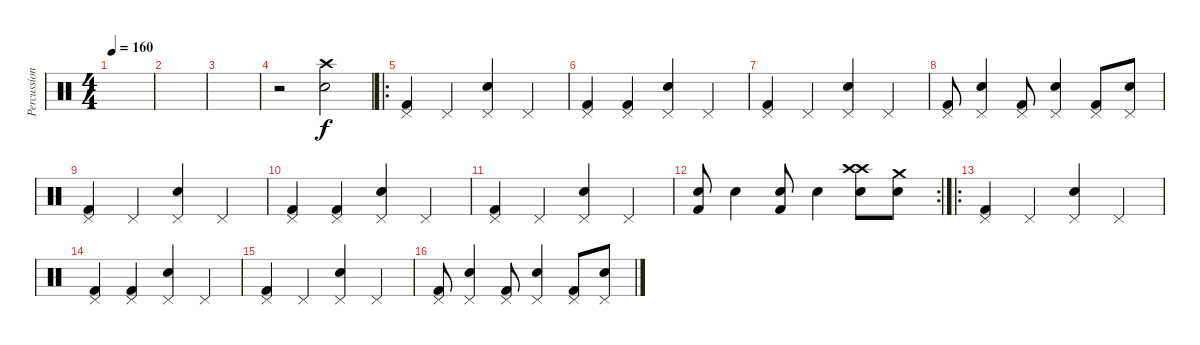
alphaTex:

\track ("Percussion" "Percussion") {instrument percussion}
\staff {score}
\articulation defaults
\ts (4 4)
\tempo 160
\clef neutral
\ks c
|
|
|
r.2 ("Crash high (hit)" "Snare (hit) 2").2 |
\ro
("Kick (hit) 2" "Pedal Hi-Hat (hit)").4 "Pedal Hi-Hat (hit)".4 ("Snare (hit) 2" "Pedal Hi-Hat (hit)").4 "Pedal Hi-Hat (hit)".4 |
("Kick (hit) 2" "Pedal Hi-Hat (hit)").4 ("Kick (hit) 2" "Pedal Hi-Hat (hit)").4 ("Snare (hit) 2" "Pedal Hi-Hat (hit)").4 "Pedal Hi-Hat (hit)".4 |
("Kick (hit) 2" "Pedal Hi-Hat (hit)").4 "Pedal Hi-Hat (hit)".4 ("Snare (hit) 2" "Pedal Hi-Hat (hit)").4 "Pedal Hi-Hat (hit)".4 |
("Kick (hit) 2" "Pedal Hi-Hat (hit)").8 ("Snare (hit) 2" "Pedal Hi-Hat (hit)").4 ("Kick (hit) 2" "Pedal Hi-Hat (hit)").8 ("Snare (hit) 2" "Pedal Hi-Hat (hit)").4 ("Kick (hit) 2" "Pedal Hi-Hat (hit)").8 ("Snare (hit) 2" "Pedal Hi-Hat (hit)").8 |
("Kick (hit) 2" "Pedal Hi-Hat (hit)").4 "Pedal Hi-Hat (hit)".4 ("Snare (hit) 2" "Pedal Hi-Hat (hit)").4 "Pedal Hi-Hat (hit)".4 |
("Kick (hit) 2" "Pedal Hi-Hat (hit)").4 ("Kick (hit) 2" "Pedal Hi-Hat (hit)").4 ("Snare (hit) 2" "Pedal Hi-Hat (hit)").4 "Pedal Hi-Hat (hit)".4 |
("Kick (hit) 2" "Pedal Hi-Hat (hit)").4 "Pedal Hi-Hat (hit)".4 ("Snare (hit) 2" "Pedal Hi-Hat (hit)").4 "Pedal Hi-Hat (hit)".4 |
\rc 2
("Snare (hit) 2" "Kick (hit) 2").8 "Snare (hit) 2".4 ("Snare (hit) 2" "Kick (hit) 2").8 "Snare (hit) 2".4 ("Crash high (hit)" "Snare (hit) 2" "Crash high (hit)").8 ("Snare (hit) 2" "Crash medium (hit)").8 |
\ro
("Kick (hit) 2" "Pedal Hi-Hat (hit)").4 "Pedal Hi-Hat (hit)".4 ("Snare (hit) 2" "Pedal Hi-Hat (hit)").4 "Pedal Hi-Hat (hit)".4 |
("Kick (hit) 2" "Pedal Hi-Hat (hit)").4 ("Kick (hit) 2" "Pedal Hi-Hat (hit)").4 ("Snare (hit) 2" "Pedal Hi-Hat (hit)").4 "Pedal Hi-Hat (hit)".4 |
("Kick (hit) 2" "Pedal Hi-Hat (hit)").4 "Pedal Hi-Hat (hit)".4 ("Snare (hit) 2" "Pedal Hi-Hat (hit)").4 "Pedal Hi-Hat (hit)".4 |
("Kick (hit) 2" "Pedal Hi-Hat (hit)").8 ("Snare (hit) 2" "Pedal Hi-Hat (hit)").4 ("Kick (hit) 2" "Pedal Hi-Hat (hit)").8 ("Snare (hit) 2" "Pedal Hi-Hat (hit)").4 ("Kick (hit) 2" "Pedal Hi-Hat (hit)").8 ("Snare (hit) 2" "Pedal Hi-Hat (hit)").8
